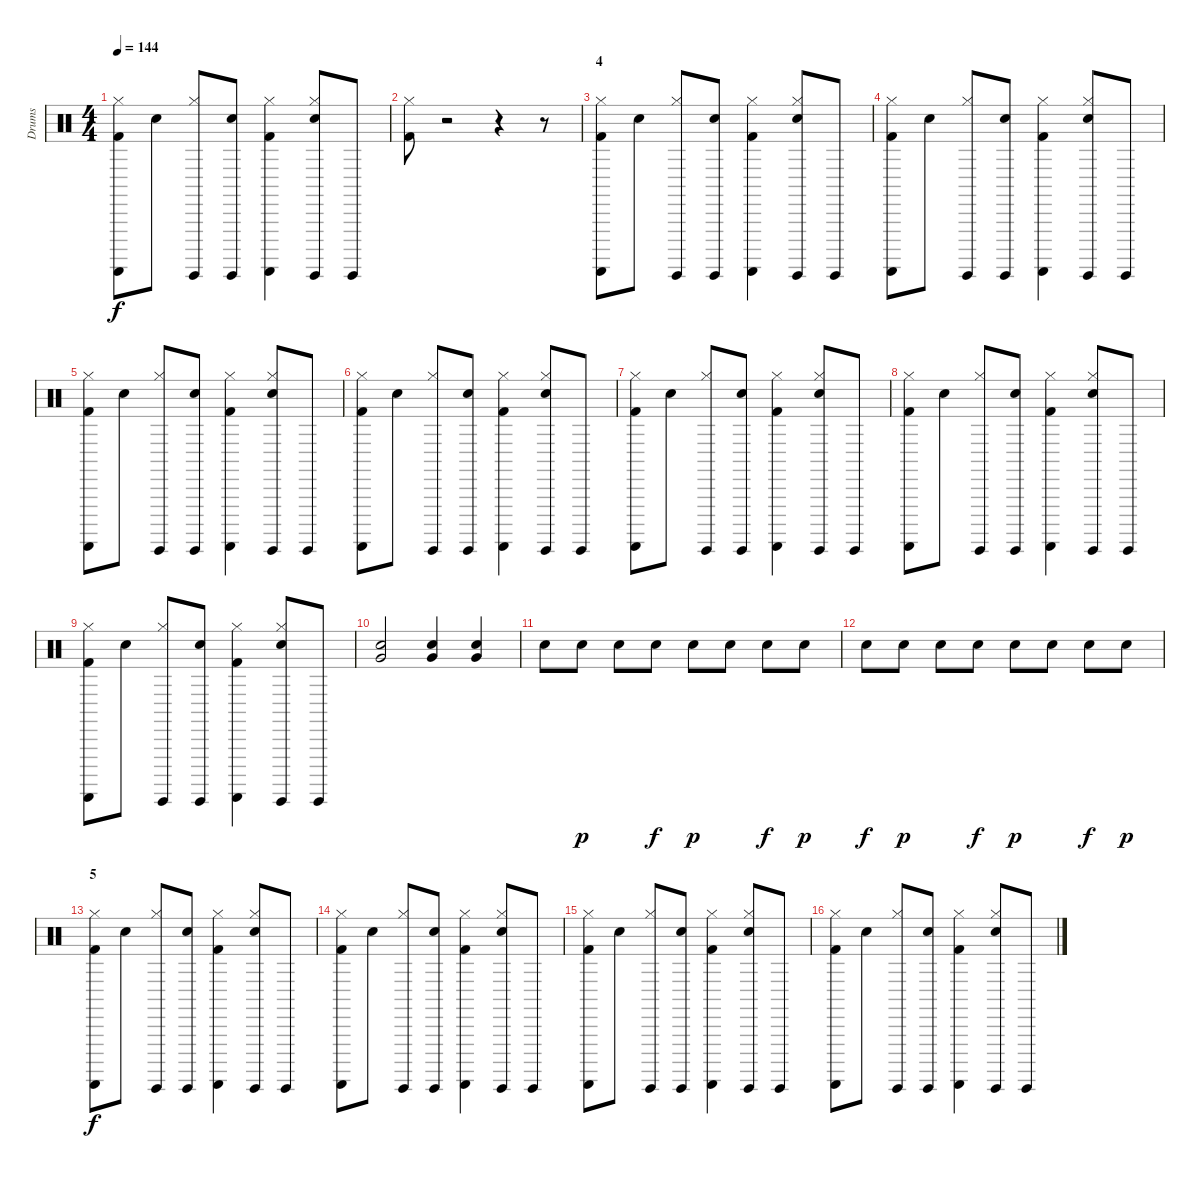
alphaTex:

\track ("Drums" "Drums") {instrument percussion}
\staff {score}
\articulation defaults
\ts (4 4)
\tempo 144
\clef neutral
\ks c
("Kick (hit) 2" "Guiro (scrap-return)" "Hi-Hat (closed)").8{dy f} "Electric Snare (hit)".8 ("Hi-Hat (closed)" "Guiro (hit)").8 ("Electric Snare (hit)" "Guiro (hit)").8 ("Hi-Hat (closed)" "Guiro (scrap-return)" "Kick (hit) 2").4 ("Guiro (hit)" "Electric Snare (hit)" "Hi-Hat (closed)").8 "Guiro (hit)".8 |
("Kick (hit) 2" "Hi-Hat (closed)").8 r.2 r.4 r.8 |
\section ("" "4")
("Kick (hit) 2" "Guiro (scrap-return)" "Hi-Hat (closed)").8 "Electric Snare (hit)".8 ("Hi-Hat (closed)" "Guiro (hit)").8 ("Electric Snare (hit)" "Guiro (hit)").8 ("Hi-Hat (closed)" "Guiro (scrap-return)" "Kick (hit) 2").4 ("Guiro (hit)" "Electric Snare (hit)" "Hi-Hat (closed)").8 "Guiro (hit)".8 |
("Kick (hit) 2" "Guiro (scrap-return)" "Hi-Hat (closed)").8 "Electric Snare (hit)".8 ("Hi-Hat (closed)" "Guiro (hit)").8 ("Electric Snare (hit)" "Guiro (hit)").8 ("Hi-Hat (closed)" "Guiro (scrap-return)" "Kick (hit) 2").4 ("Guiro (hit)" "Electric Snare (hit)" "Hi-Hat (closed)").8 "Guiro (hit)".8 |
("Kick (hit) 2" "Guiro (scrap-return)" "Hi-Hat (closed)").8 "Electric Snare (hit)".8 ("Hi-Hat (closed)" "Guiro (hit)").8 ("Electric Snare (hit)" "Guiro (hit)").8 ("Hi-Hat (closed)" "Guiro (scrap-return)" "Kick (hit) 2").4 ("Guiro (hit)" "Electric Snare (hit)" "Hi-Hat (closed)").8 "Guiro (hit)".8 |
("Kick (hit) 2" "Guiro (scrap-return)" "Hi-Hat (closed)").8 "Electric Snare (hit)".8 ("Hi-Hat (closed)" "Guiro (hit)").8 ("Electric Snare (hit)" "Guiro (hit)").8 ("Hi-Hat (closed)" "Guiro (scrap-return)" "Kick (hit) 2").4 ("Guiro (hit)" "Electric Snare (hit)" "Hi-Hat (closed)").8 "Guiro (hit)".8 |
("Kick (hit) 2" "Guiro (scrap-return)" "Hi-Hat (closed)").8 "Electric Snare (hit)".8 ("Hi-Hat (closed)" "Guiro (hit)").8 ("Electric Snare (hit)" "Guiro (hit)").8 ("Hi-Hat (closed)" "Guiro (scrap-return)" "Kick (hit) 2").4 ("Guiro (hit)" "Electric Snare (hit)" "Hi-Hat (closed)").8 "Guiro (hit)".8 |
("Kick (hit) 2" "Guiro (scrap-return)" "Hi-Hat (closed)").8 "Electric Snare (hit)".8 ("Hi-Hat (closed)" "Guiro (hit)").8 ("Electric Snare (hit)" "Guiro (hit)").8 ("Hi-Hat (closed)" "Guiro (scrap-return)" "Kick (hit) 2").4 ("Guiro (hit)" "Electric Snare (hit)" "Hi-Hat (closed)").8 "Guiro (hit)".8 |
("Kick (hit) 2" "Guiro (scrap-return)" "Hi-Hat (closed)").8 "Electric Snare (hit)".8 ("Hi-Hat (closed)" "Guiro (hit)").8 ("Electric Snare (hit)" "Guiro (hit)").8 ("Hi-Hat (closed)" "Guiro (scrap-return)" "Kick (hit) 2").4 ("Guiro (hit)" "Electric Snare (hit)" "Hi-Hat (closed)").8 "Guiro (hit)".8 |
("Electric Snare (hit)" "Very Low Tom (hit)").2 ("Very Low Tom (hit)" "Electric Snare (hit)").4 ("Electric Snare (hit)" "Very Low Tom (hit)").4 |
"Hand Clap (hit)".8 "Hand Clap (hit)".8{dy p} "Hand Clap (hit)".8 "Hand Clap (hit)".8{dy f} "Hand Clap (hit)".8{dy p} "Hand Clap (hit)".8 "Hand Clap (hit)".8{dy f} "Hand Clap (hit)".8{dy p} |
"Hand Clap (hit)".8{dy f} "Hand Clap (hit)".8{dy p} "Hand Clap (hit)".8 "Hand Clap (hit)".8{dy f} "Hand Clap (hit)".8{dy p} "Hand Clap (hit)".8 "Hand Clap (hit)".8{dy f} "Hand Clap (hit)".8{dy p} |
\section ("" "5")
("Kick (hit) 2" "Guiro (scrap-return)" "Hi-Hat (closed)").8{dy f} "Electric Snare (hit)".8 ("Hi-Hat (closed)" "Guiro (hit)").8 ("Electric Snare (hit)" "Guiro (hit)").8 ("Hi-Hat (closed)" "Guiro (scrap-return)" "Kick (hit) 2").4 ("Guiro (hit)" "Electric Snare (hit)" "Hi-Hat (closed)").8 "Guiro (hit)".8 |
("Kick (hit) 2" "Guiro (scrap-return)" "Hi-Hat (closed)").8 "Electric Snare (hit)".8 ("Hi-Hat (closed)" "Guiro (hit)").8 ("Electric Snare (hit)" "Guiro (hit)").8 ("Hi-Hat (closed)" "Guiro (scrap-return)" "Kick (hit) 2").4 ("Guiro (hit)" "Electric Snare (hit)" "Hi-Hat (closed)").8 "Guiro (hit)".8 |
("Kick (hit) 2" "Guiro (scrap-return)" "Hi-Hat (closed)").8 "Electric Snare (hit)".8 ("Hi-Hat (closed)" "Guiro (hit)").8 ("Electric Snare (hit)" "Guiro (hit)").8 ("Hi-Hat (closed)" "Guiro (scrap-return)" "Kick (hit) 2").4 ("Guiro (hit)" "Electric Snare (hit)" "Hi-Hat (closed)").8 "Guiro (hit)".8 |
("Kick (hit) 2" "Guiro (scrap-return)" "Hi-Hat (closed)").8 "Electric Snare (hit)".8 ("Hi-Hat (closed)" "Guiro (hit)").8 ("Electric Snare (hit)" "Guiro (hit)").8 ("Hi-Hat (closed)" "Guiro (scrap-return)" "Kick (hit) 2").4 ("Guiro (hit)" "Electric Snare (hit)" "Hi-Hat (closed)").8 "Guiro (hit)".8
